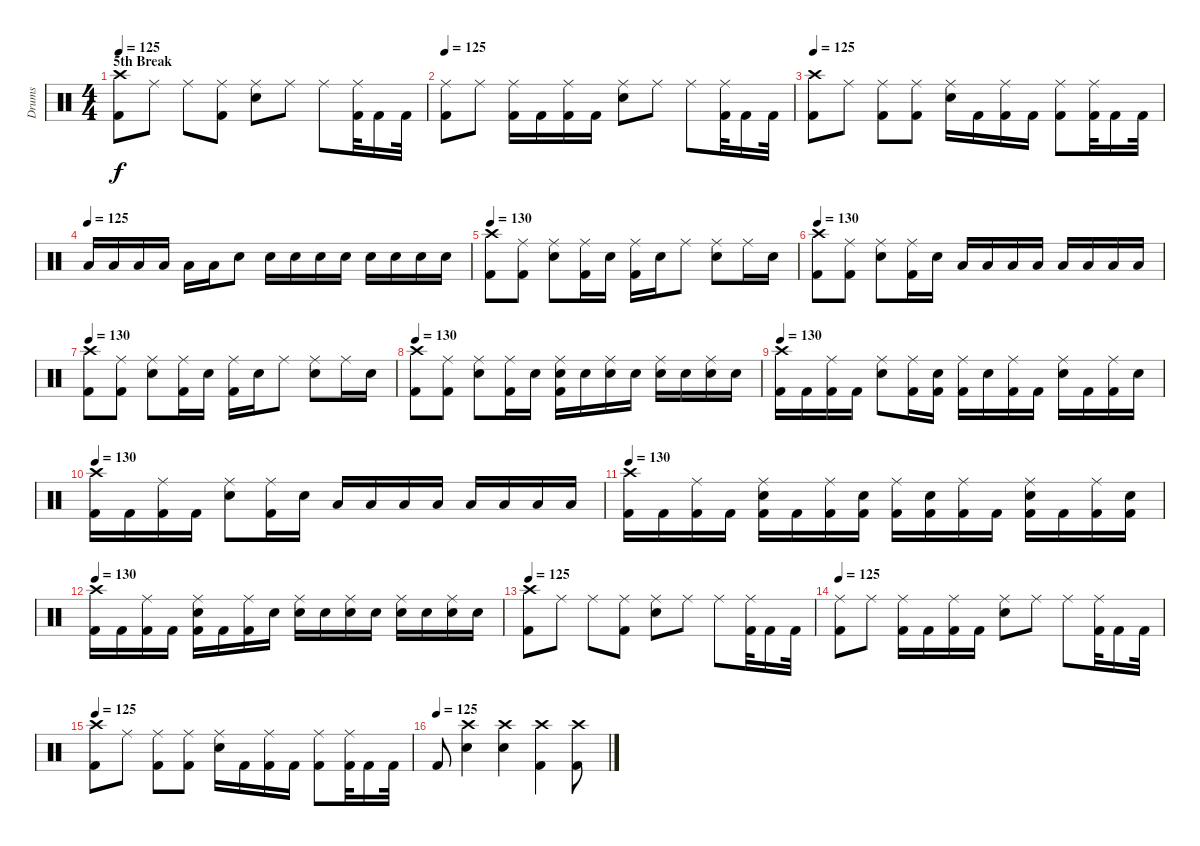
\track ("Drums" "Drums") {instrument percussion}
\staff {score}
\articulation defaults
\ts (4 4)
\section ("" "5th Break")
\tempo 125
\clef neutral
\ks c
("Crash high (hit)" "Kick (hit) 2").8{dy f} "Ride (middle)".8 "Ride (middle)".8 ("Ride (middle)" "Kick (hit) 2").8 ("Ride (middle)" "Snare (hit) 2").8 "Ride (middle)".8 "Ride (middle)".8 ("Ride (middle)" "Kick (hit) 2").32 "Kick (hit) 2".16 "Kick (hit) 2".32 |
\tempo 125
("Ride (middle)" "Kick (hit) 2").8 "Ride (middle)".8 ("Ride (middle)" "Kick (hit) 2").16 "Kick (hit) 2".16 ("Ride (middle)" "Kick (hit) 2").16 "Kick (hit) 2".16 ("Ride (middle)" "Snare (hit) 2").8 "Ride (middle)".8 "Ride (middle)".8 ("Ride (middle)" "Kick (hit) 2").32 "Kick (hit) 2".16 "Kick (hit) 2".32 |
\tempo 125
("Crash high (hit)" "Kick (hit) 2").8 "Ride (middle)".8 ("Ride (middle)" "Kick (hit) 2").8 ("Ride (middle)" "Kick (hit) 2").8 ("Ride (middle)" "Snare (hit) 2").16 "Kick (hit) 2".16 ("Ride (middle)" "Kick (hit) 2").16 "Kick (hit) 2".16 ("Ride (middle)" "Kick (hit) 2").8 ("Ride (middle)" "Kick (hit) 2").32 "Kick (hit) 2".16 "Kick (hit) 2".32 |
\tempo (125)
"Low Tom (hit)".16 "Low Tom (hit)".16 "Low Tom (hit)".16 "Low Floor Tom (hit)".16 "Low Floor Tom (hit)".16 "Low Floor Tom (hit)".16 "Snare (hit) 2".8 "Snare (hit) 2".16 "Snare (hit) 2".16 "Snare (hit) 2".16 "Snare (hit) 2".16 "Snare (hit) 2".16 "Snare (hit) 2".16 "Snare (hit) 2".16 "Snare (hit) 2".16 |
\tempo 130
("Crash high (hit)" "Kick (hit) 2").8 ("Ride (middle)" "Kick (hit) 2").8 ("Ride (middle)" "Snare (hit) 2").8 ("Ride (middle)" "Kick (hit) 2").16 "Snare (hit) 2".16 ("Ride (middle)" "Kick (hit) 2").16 "Snare (hit) 2".16 "Ride (middle)".8 ("Ride (middle)" "Snare (hit) 2").8 "Ride (middle)".16 "Snare (hit) 2".16 |
\tempo 130
("Crash high (hit)" "Kick (hit) 2").8 ("Ride (middle)" "Kick (hit) 2").8 ("Ride (middle)" "Snare (hit) 2").8 ("Ride (middle)" "Kick (hit) 2").16 "Snare (hit) 2".16 "Low Tom (hit)".16 "Low Tom (hit)".16 "Low Tom (hit)".16 "Low Tom (hit)".16 "Low Floor Tom (hit)".16 "Low Floor Tom (hit)".16 "Low Floor Tom (hit)".16 "Low Floor Tom (hit)".16 |
\tempo 130
("Crash high (hit)" "Kick (hit) 2").8 ("Ride (middle)" "Kick (hit) 2").8 ("Ride (middle)" "Snare (hit) 2").8 ("Ride (middle)" "Kick (hit) 2").16 "Snare (hit) 2".16 ("Ride (middle)" "Kick (hit) 2").16 "Snare (hit) 2".16 "Ride (middle)".8 ("Ride (middle)" "Snare (hit) 2").8 "Ride (middle)".16 "Snare (hit) 2".16 |
\tempo 130
("Crash high (hit)" "Kick (hit) 2").8 ("Ride (middle)" "Kick (hit) 2").8 ("Ride (middle)" "Snare (hit) 2").8 ("Ride (middle)" "Kick (hit) 2").16 "Snare (hit) 2".16 ("Ride (middle)" "Snare (hit) 2" "Kick (hit) 2").16 "Snare (hit) 2".16 ("Ride (middle)" "Snare (hit) 2").16 "Snare (hit) 2".16 ("Ride (middle)" "Snare (hit) 2").16 "Snare (hit) 2".16 ("Ride (middle)" "Snare (hit) 2").16 "Snare (hit) 2".16 |
\tempo 130
("Crash high (hit)" "Kick (hit) 2").16 "Kick (hit) 2".16 ("Ride (middle)" "Kick (hit) 2").16 "Kick (hit) 2".16 ("Ride (middle)" "Snare (hit) 2").8 ("Ride (middle)" "Kick (hit) 2").16 ("Snare (hit) 2" "Kick (hit) 2").16 ("Ride (middle)" "Kick (hit) 2").16 "Snare (hit) 2".16 ("Ride (middle)" "Kick (hit) 2").16 "Kick (hit) 2".16 ("Ride (middle)" "Snare (hit) 2").16 "Kick (hit) 2".16 ("Ride (middle)" "Kick (hit) 2").16 "Snare (hit) 2".16 |
\tempo 130
("Crash high (hit)" "Kick (hit) 2").16 "Kick (hit) 2".16 ("Ride (middle)" "Kick (hit) 2").16 "Kick (hit) 2".16 ("Ride (middle)" "Snare (hit) 2").8 ("Ride (middle)" "Kick (hit) 2").16 "Snare (hit) 2".16 "Low Tom (hit)".16 "Low Tom (hit)".16 "Low Tom (hit)".16 "Low Tom (hit)".16 "Low Floor Tom (hit)".16 "Low Floor Tom (hit)".16 "Low Floor Tom (hit)".16 "Low Floor Tom (hit)".16 |
\tempo 130
("Crash high (hit)" "Kick (hit) 2").16 "Kick (hit) 2".16 ("Ride (middle)" "Kick (hit) 2").16 "Kick (hit) 2".16 ("Ride (middle)" "Snare (hit) 2" "Kick (hit) 2").16 "Kick (hit) 2".16 ("Ride (middle)" "Kick (hit) 2").16 ("Snare (hit) 2" "Kick (hit) 2").16 ("Ride (middle)" "Kick (hit) 2").16 ("Snare (hit) 2" "Kick (hit) 2").16 ("Ride (middle)" "Kick (hit) 2").16 "Kick (hit) 2".16 ("Ride (middle)" "Snare (hit) 2" "Kick (hit) 2").16 "Kick (hit) 2".16 ("Ride (middle)" "Kick (hit) 2").16 ("Snare (hit) 2" "Kick (hit) 2").16 |
\tempo 130
("Crash high (hit)" "Kick (hit) 2").16 "Kick (hit) 2".16 ("Ride (middle)" "Kick (hit) 2").16 "Kick (hit) 2".16 ("Ride (middle)" "Snare (hit) 2" "Kick (hit) 2").16 "Kick (hit) 2".16 ("Ride (middle)" "Kick (hit) 2").16 "Snare (hit) 2".16 ("Ride (middle)" "Snare (hit) 2").16 "Snare (hit) 2".16 ("Ride (middle)" "Snare (hit) 2").16 "Snare (hit) 2".16 ("Ride (middle)" "Snare (hit) 2").16 "Snare (hit) 2".16 ("Ride (middle)" "Snare (hit) 2").16 "Snare (hit) 2".16 |
\tempo 125
("Crash high (hit)" "Kick (hit) 2").8 "Ride (middle)".8 "Ride (middle)".8 ("Ride (middle)" "Kick (hit) 2").8 ("Ride (middle)" "Snare (hit) 2").8 "Ride (middle)".8 "Ride (middle)".8 ("Ride (middle)" "Kick (hit) 2").32 "Kick (hit) 2".16 "Kick (hit) 2".32 |
\tempo 125
("Ride (middle)" "Kick (hit) 2").8 "Ride (middle)".8 ("Ride (middle)" "Kick (hit) 2").16 "Kick (hit) 2".16 ("Ride (middle)" "Kick (hit) 2").16 "Kick (hit) 2".16 ("Ride (middle)" "Snare (hit) 2").8 "Ride (middle)".8 "Ride (middle)".8 ("Ride (middle)" "Kick (hit) 2").32 "Kick (hit) 2".16 "Kick (hit) 2".32 |
\tempo 125
("Crash high (hit)" "Kick (hit) 2").8 "Ride (middle)".8 ("Ride (middle)" "Kick (hit) 2").8 ("Ride (middle)" "Kick (hit) 2").8 ("Ride (middle)" "Snare (hit) 2").16 "Kick (hit) 2".16 ("Ride (middle)" "Kick (hit) 2").16 "Kick (hit) 2".16 ("Ride (middle)" "Kick (hit) 2").8 ("Ride (middle)" "Kick (hit) 2").32 "Kick (hit) 2".16 "Kick (hit) 2".32 |
\tempo (125)
"Kick (hit) 2".8 ("Crash high (hit)" "Snare (hit) 2").4 ("Crash high (hit)" "Snare (hit) 2").4 ("Crash high (hit)" "Kick (hit) 2").4 ("Crash high (hit)" "Kick (hit) 2").8
